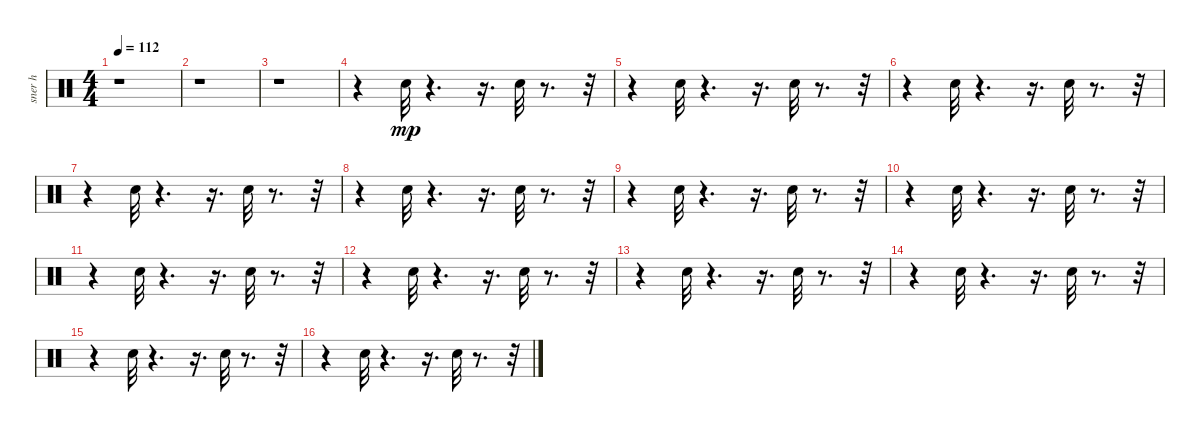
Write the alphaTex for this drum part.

\track ("sner h" "sner h") {instrument percussion}
\staff {score}
\articulation defaults
\ts (4 4)
\tempo 112
\clef neutral
\ks c
r.1{dy mp} |
r.1 |
r.1 |
r.4 "Electric Snare (hit)".32 r.4{d} r.16{d} "Electric Snare (hit)".32 r.8{d} r.32 |
r.4 "Electric Snare (hit)".32 r.4{d} r.16{d} "Electric Snare (hit)".32 r.8{d} r.32 |
r.4 "Electric Snare (hit)".32 r.4{d} r.16{d} "Electric Snare (hit)".32 r.8{d} r.32 |
r.4 "Electric Snare (hit)".32 r.4{d} r.16{d} "Electric Snare (hit)".32 r.8{d} r.32 |
r.4 "Electric Snare (hit)".32 r.4{d} r.16{d} "Electric Snare (hit)".32 r.8{d} r.32 |
r.4 "Electric Snare (hit)".32 r.4{d} r.16{d} "Electric Snare (hit)".32 r.8{d} r.32 |
r.4 "Electric Snare (hit)".32 r.4{d} r.16{d} "Electric Snare (hit)".32 r.8{d} r.32 |
r.4 "Electric Snare (hit)".32 r.4{d} r.16{d} "Electric Snare (hit)".32 r.8{d} r.32 |
r.4 "Electric Snare (hit)".32 r.4{d} r.16{d} "Electric Snare (hit)".32 r.8{d} r.32 |
r.4 "Electric Snare (hit)".32 r.4{d} r.16{d} "Electric Snare (hit)".32 r.8{d} r.32 |
r.4 "Electric Snare (hit)".32 r.4{d} r.16{d} "Electric Snare (hit)".32 r.8{d} r.32 |
r.4 "Electric Snare (hit)".32 r.4{d} r.16{d} "Electric Snare (hit)".32 r.8{d} r.32 |
r.4 "Electric Snare (hit)".32 r.4{d} r.16{d} "Electric Snare (hit)".32 r.8{d} r.32
